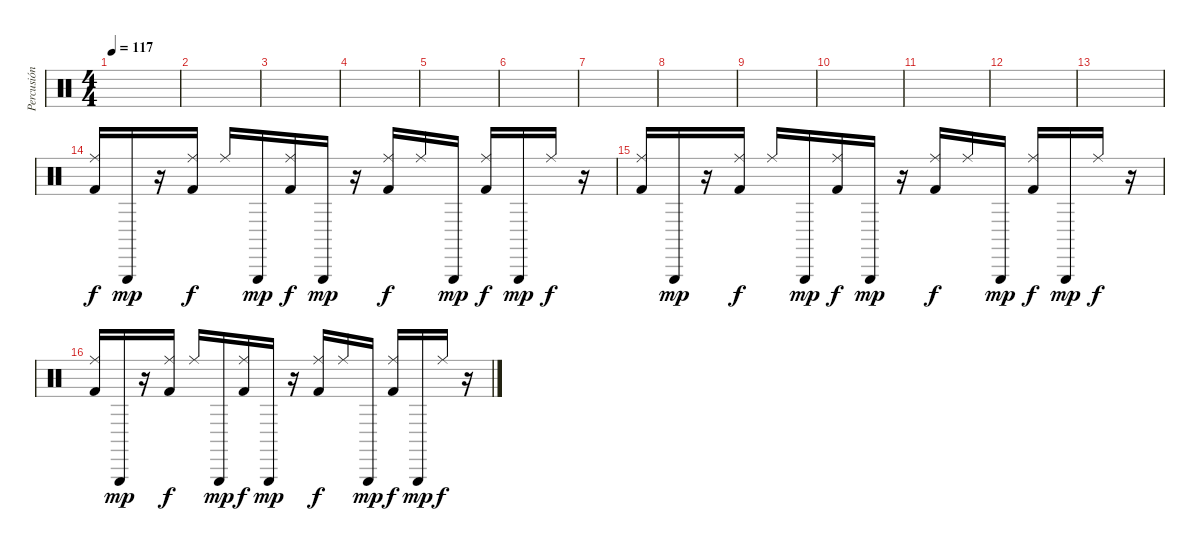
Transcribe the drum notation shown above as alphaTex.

\track ("Percusión" "Percusión") {instrument percussion}
\staff {score}
\articulation defaults
\ts (4 4)
\tempo 117
\clef neutral
\ks c
|
|
|
|
|
|
|
|
|
|
|
|
|
("Ride (middle)" "Kick (hit) 2").16{dy f} "Triangle (hit)".16{dy mp} r.16 ("Ride (middle)" "Kick (hit) 2").16{dy f} "Ride (middle)".16 "Triangle (hit)".16{dy mp} ("Ride (middle)" "Kick (hit) 2").16{dy f} "Triangle (hit)".16{dy mp} r.16 ("Ride (middle)" "Kick (hit) 2").16{dy f} "Ride (middle)".16 "Triangle (hit)".16{dy mp} ("Ride (middle)" "Kick (hit) 2").16{dy f} "Triangle (hit)".16{dy mp} "Ride (middle)".16{dy f} r.16 |
("Ride (middle)" "Kick (hit) 2").16 "Triangle (hit)".16{dy mp} r.16 ("Ride (middle)" "Kick (hit) 2").16{dy f} "Ride (middle)".16 "Triangle (hit)".16{dy mp} ("Ride (middle)" "Kick (hit) 2").16{dy f} "Triangle (hit)".16{dy mp} r.16 ("Ride (middle)" "Kick (hit) 2").16{dy f} "Ride (middle)".16 "Triangle (hit)".16{dy mp} ("Ride (middle)" "Kick (hit) 2").16{dy f} "Triangle (hit)".16{dy mp} "Ride (middle)".16{dy f} r.16 |
("Ride (middle)" "Kick (hit) 2").16 "Triangle (hit)".16{dy mp} r.16 ("Ride (middle)" "Kick (hit) 2").16{dy f} "Ride (middle)".16 "Triangle (hit)".16{dy mp} ("Ride (middle)" "Kick (hit) 2").16{dy f} "Triangle (hit)".16{dy mp} r.16 ("Ride (middle)" "Kick (hit) 2").16{dy f} "Ride (middle)".16 "Triangle (hit)".16{dy mp} ("Ride (middle)" "Kick (hit) 2").16{dy f} "Triangle (hit)".16{dy mp} "Ride (middle)".16{dy f} r.16
